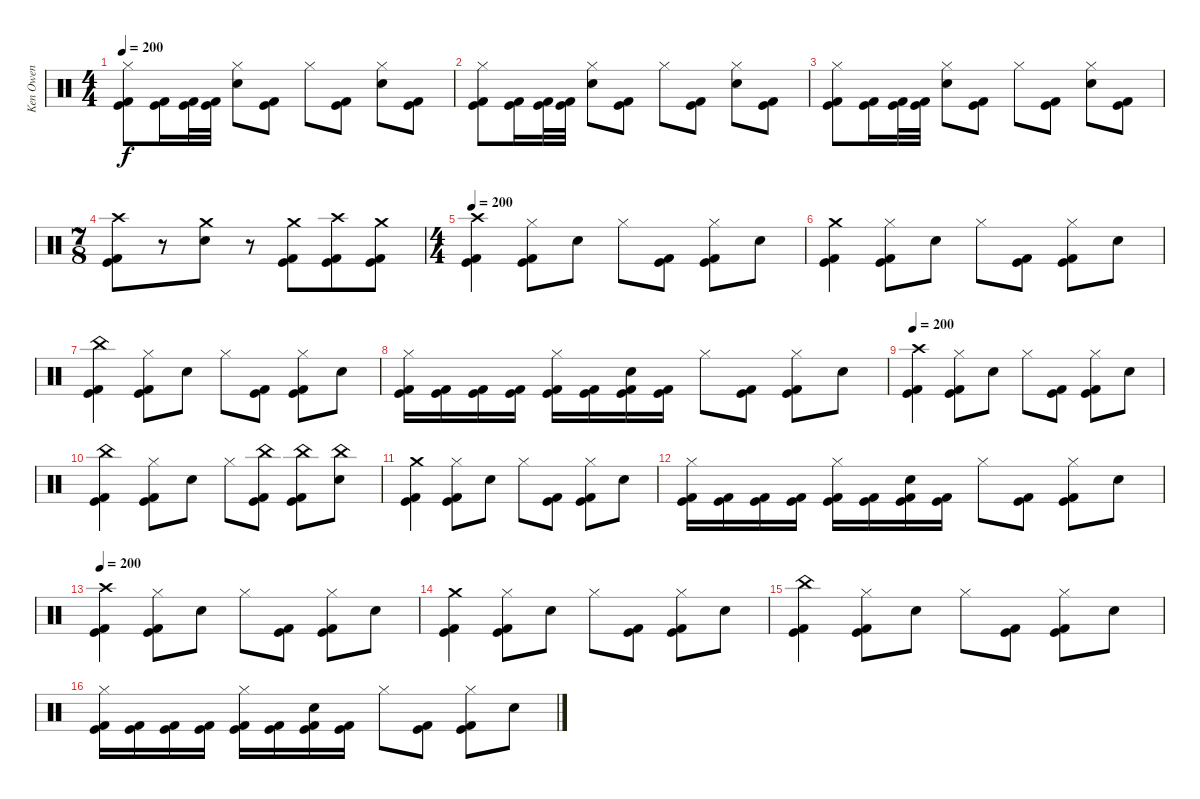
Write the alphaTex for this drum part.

\track ("Ken Owen" "Ken Owen") {instrument percussion}
\staff {score}
\articulation defaults
\ts (4 4)
\tempo 200
\clef neutral
\ks c
("Hi-Hat (closed)" "Kick (hit)" "Kick (hit) 2").8{dy f} ("Kick (hit)" "Kick (hit) 2").16 ("Kick (hit)" "Kick (hit) 2").32 ("Kick (hit)" "Kick (hit) 2").32 ("Hi-Hat (closed)" "Electric Snare (hit)").8 ("Kick (hit)" "Kick (hit) 2").8 "Hi-Hat (closed)".8 ("Kick (hit)" "Kick (hit) 2").8 ("Hi-Hat (closed)" "Electric Snare (hit)").8 ("Kick (hit)" "Kick (hit) 2").8 |
("Hi-Hat (closed)" "Kick (hit)" "Kick (hit) 2").8 ("Kick (hit)" "Kick (hit) 2").16 ("Kick (hit)" "Kick (hit) 2").32 ("Kick (hit)" "Kick (hit) 2").32 ("Hi-Hat (closed)" "Electric Snare (hit)").8 ("Kick (hit)" "Kick (hit) 2").8 "Hi-Hat (closed)".8 ("Kick (hit)" "Kick (hit) 2").8 ("Hi-Hat (closed)" "Electric Snare (hit)").8 ("Kick (hit) 2" "Kick (hit)").8 |
("Hi-Hat (closed)" "Kick (hit)" "Kick (hit) 2").8 ("Kick (hit)" "Kick (hit) 2").16 ("Kick (hit)" "Kick (hit) 2").32 ("Kick (hit)" "Kick (hit) 2").32 ("Hi-Hat (closed)" "Electric Snare (hit)").8 ("Kick (hit)" "Kick (hit) 2").8 "Hi-Hat (closed)".8 ("Kick (hit)" "Kick (hit) 2").8 ("Hi-Hat (closed)" "Electric Snare (hit)").8 ("Kick (hit) 2" "Kick (hit)").8 |
\ts (7 8)
("Crash high (hit)" "Kick (hit)" "Kick (hit) 2").8 r.8 ("Crash medium (hit)" "Electric Snare (hit)").8 r.8 ("Crash medium (hit)" "Kick (hit)" "Kick (hit) 2").8 ("Crash high (hit)" "Kick (hit)" "Kick (hit) 2").8 ("Crash medium (hit)" "Kick (hit)" "Kick (hit) 2").8 |
\ts (4 4)
\tempo 200
("Crash high (hit)" "Kick (hit)" "Kick (hit) 2").4 ("Hi-Hat (closed)" "Kick (hit)" "Kick (hit) 2").8 "Electric Snare (hit)".8 "Hi-Hat (closed)".8 ("Kick (hit)" "Kick (hit) 2").8 ("Hi-Hat (closed)" "Kick (hit)" "Kick (hit) 2").8 "Electric Snare (hit)".8 |
("Crash medium (hit)" "Kick (hit)" "Kick (hit) 2").4 ("Hi-Hat (closed)" "Kick (hit)" "Kick (hit) 2").8 "Electric Snare (hit)".8 "Hi-Hat (closed)".8 ("Kick (hit)" "Kick (hit) 2").8 ("Hi-Hat (closed)" "Kick (hit)" "Kick (hit) 2").8 "Electric Snare (hit)".8 |
("China (hit)" "Kick (hit)" "Kick (hit) 2").4 ("Hi-Hat (closed)" "Kick (hit)" "Kick (hit) 2").8 "Electric Snare (hit)".8 "Hi-Hat (closed)".8 ("Kick (hit)" "Kick (hit) 2").8 ("Hi-Hat (closed)" "Kick (hit)" "Kick (hit) 2").8 "Electric Snare (hit)".8 |
("Hi-Hat (closed)" "Kick (hit)" "Kick (hit) 2").16 ("Kick (hit)" "Kick (hit) 2").16 ("Kick (hit)" "Kick (hit) 2").16 ("Kick (hit)" "Kick (hit) 2").16 ("Hi-Hat (closed)" "Kick (hit)" "Kick (hit) 2").16 ("Kick (hit)" "Kick (hit) 2").16 ("Electric Snare (hit)" "Kick (hit)" "Kick (hit) 2").16 ("Kick (hit)" "Kick (hit) 2").16 "Hi-Hat (closed)".8 ("Kick (hit)" "Kick (hit) 2").8 ("Hi-Hat (closed)" "Kick (hit)" "Kick (hit) 2").8 "Electric Snare (hit)".8 |
\tempo 200
("Crash high (hit)" "Kick (hit)" "Kick (hit) 2").4 ("Hi-Hat (closed)" "Kick (hit)" "Kick (hit) 2").8 "Electric Snare (hit)".8 "Hi-Hat (closed)".8 ("Kick (hit)" "Kick (hit) 2").8 ("Hi-Hat (closed)" "Kick (hit)" "Kick (hit) 2").8 "Electric Snare (hit)".8 |
("China (hit)" "Kick (hit)" "Kick (hit) 2").4 ("Hi-Hat (closed)" "Kick (hit)" "Kick (hit) 2").8 "Electric Snare (hit)".8 "Hi-Hat (closed)".8 ("China (hit)" "Kick (hit)" "Kick (hit) 2").8 ("China (hit)" "Kick (hit)" "Kick (hit) 2").8 ("China (hit)" "Electric Snare (hit)").8 |
("Crash medium (hit)" "Kick (hit)" "Kick (hit) 2").4 ("Hi-Hat (closed)" "Kick (hit)" "Kick (hit) 2").8 "Electric Snare (hit)".8 "Hi-Hat (closed)".8 ("Kick (hit)" "Kick (hit) 2").8 ("Hi-Hat (closed)" "Kick (hit)" "Kick (hit) 2").8 "Electric Snare (hit)".8 |
("Hi-Hat (closed)" "Kick (hit)" "Kick (hit) 2").16 ("Kick (hit)" "Kick (hit) 2").16 ("Kick (hit)" "Kick (hit) 2").16 ("Kick (hit)" "Kick (hit) 2").16 ("Hi-Hat (closed)" "Kick (hit)" "Kick (hit) 2").16 ("Kick (hit)" "Kick (hit) 2").16 ("Electric Snare (hit)" "Kick (hit)" "Kick (hit) 2").16 ("Kick (hit)" "Kick (hit) 2").16 "Hi-Hat (closed)".8 ("Kick (hit)" "Kick (hit) 2").8 ("Hi-Hat (closed)" "Kick (hit)" "Kick (hit) 2").8 "Electric Snare (hit)".8 |
\tempo 200
("Crash high (hit)" "Kick (hit)" "Kick (hit) 2").4 ("Hi-Hat (closed)" "Kick (hit)" "Kick (hit) 2").8 "Electric Snare (hit)".8 "Hi-Hat (closed)".8 ("Kick (hit)" "Kick (hit) 2").8 ("Hi-Hat (closed)" "Kick (hit)" "Kick (hit) 2").8 "Electric Snare (hit)".8 |
("Crash medium (hit)" "Kick (hit)" "Kick (hit) 2").4 ("Hi-Hat (closed)" "Kick (hit)" "Kick (hit) 2").8 "Electric Snare (hit)".8 "Hi-Hat (closed)".8 ("Kick (hit)" "Kick (hit) 2").8 ("Hi-Hat (closed)" "Kick (hit)" "Kick (hit) 2").8 "Electric Snare (hit)".8 |
("China (hit)" "Kick (hit)" "Kick (hit) 2").4 ("Hi-Hat (closed)" "Kick (hit)" "Kick (hit) 2").8 "Electric Snare (hit)".8 "Hi-Hat (closed)".8 ("Kick (hit)" "Kick (hit) 2").8 ("Hi-Hat (closed)" "Kick (hit)" "Kick (hit) 2").8 "Electric Snare (hit)".8 |
("Hi-Hat (closed)" "Kick (hit)" "Kick (hit) 2").16 ("Kick (hit)" "Kick (hit) 2").16 ("Kick (hit)" "Kick (hit) 2").16 ("Kick (hit)" "Kick (hit) 2").16 ("Hi-Hat (closed)" "Kick (hit)" "Kick (hit) 2").16 ("Kick (hit)" "Kick (hit) 2").16 ("Electric Snare (hit)" "Kick (hit)" "Kick (hit) 2").16 ("Kick (hit)" "Kick (hit) 2").16 "Hi-Hat (closed)".8 ("Kick (hit)" "Kick (hit) 2").8 ("Hi-Hat (closed)" "Kick (hit)" "Kick (hit) 2").8 "Electric Snare (hit)".8
